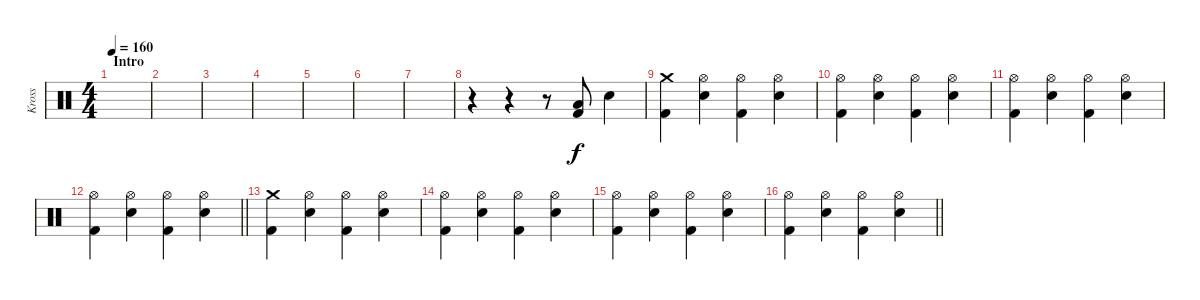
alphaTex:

\track ("Kross" "Kross") {instrument percussion}
\staff {score}
\articulation defaults
\ts (4 4)
\section ("" "Intro")
\tempo 160
\clef neutral
\ks c
|
|
|
|
|
|
|
r.4 r.4 r.8 ("Low Floor Tom (hit)" "Kick (hit) 2").8 "Electric Snare (hit)".4 |
("Crash medium (hit)" "Kick (hit) 2").4 ("Hi-Hat (open)" "Electric Snare (hit)").4 ("Hi-Hat (open)" "Kick (hit) 2").4 ("Hi-Hat (open)" "Electric Snare (hit)").4 |
("Hi-Hat (open)" "Kick (hit) 2").4 ("Hi-Hat (open)" "Electric Snare (hit)").4 ("Hi-Hat (open)" "Kick (hit) 2").4 ("Hi-Hat (open)" "Electric Snare (hit)").4 |
("Hi-Hat (open)" "Kick (hit) 2").4 ("Hi-Hat (open)" "Electric Snare (hit)").4 ("Hi-Hat (open)" "Kick (hit) 2").4 ("Hi-Hat (open)" "Electric Snare (hit)").4 |
\barLineRight lightlight
("Hi-Hat (open)" "Kick (hit) 2").4 ("Hi-Hat (open)" "Electric Snare (hit)").4 ("Hi-Hat (open)" "Kick (hit) 2").4 ("Hi-Hat (open)" "Electric Snare (hit)").4 |
("Crash medium (hit)" "Kick (hit) 2").4 ("Hi-Hat (open)" "Electric Snare (hit)").4 ("Hi-Hat (open)" "Kick (hit) 2").4 ("Hi-Hat (open)" "Electric Snare (hit)").4 |
("Hi-Hat (open)" "Kick (hit) 2").4 ("Hi-Hat (open)" "Electric Snare (hit)").4 ("Hi-Hat (open)" "Kick (hit) 2").4 ("Hi-Hat (open)" "Electric Snare (hit)").4 |
("Hi-Hat (open)" "Kick (hit) 2").4 ("Hi-Hat (open)" "Electric Snare (hit)").4 ("Hi-Hat (open)" "Kick (hit) 2").4 ("Hi-Hat (open)" "Electric Snare (hit)").4 |
\barLineRight lightlight
("Hi-Hat (open)" "Kick (hit) 2").4 ("Hi-Hat (open)" "Electric Snare (hit)").4 ("Hi-Hat (open)" "Kick (hit) 2").4 ("Hi-Hat (open)" "Electric Snare (hit)").4
